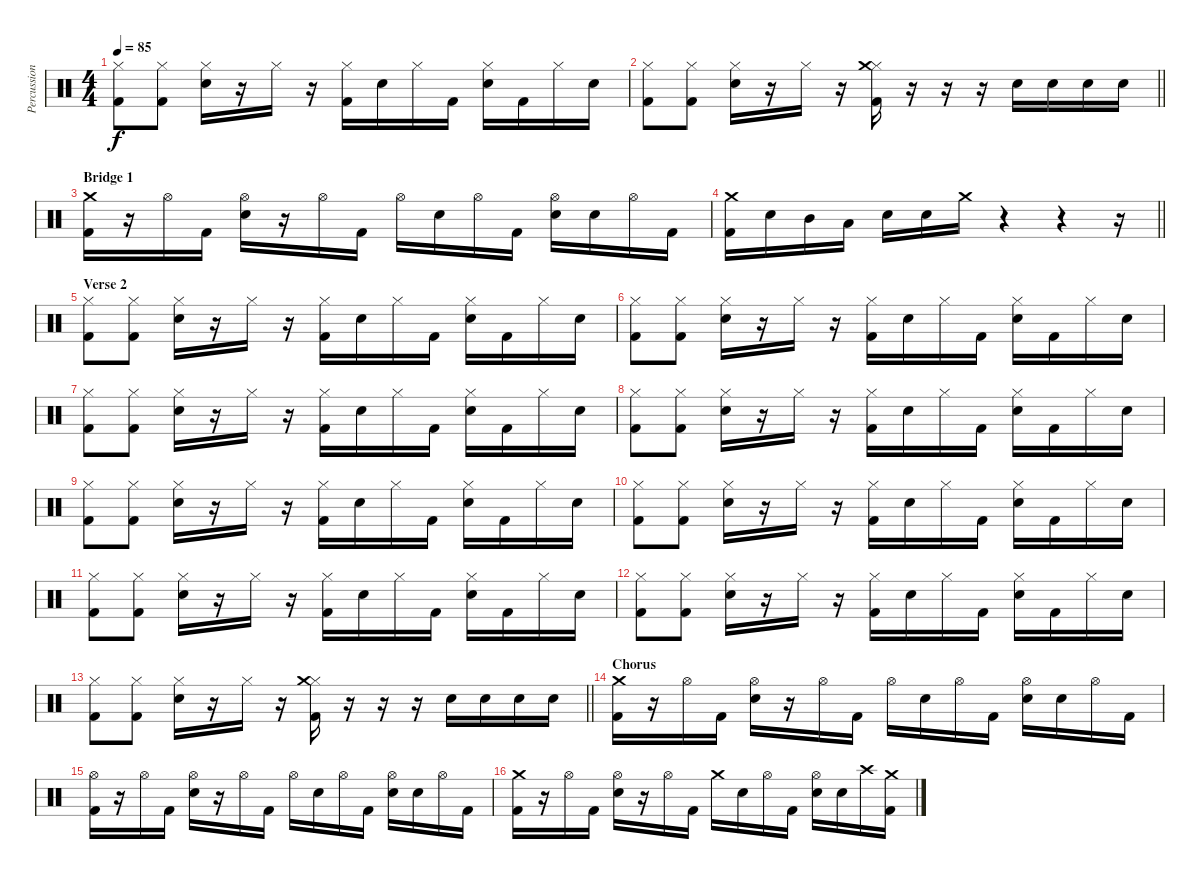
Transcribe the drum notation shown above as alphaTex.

\track ("Percussion" "Percussion") {instrument percussion}
\staff {score}
\articulation defaults
\ts (4 4)
\tempo 85
\clef neutral
\ks c
("Hi-Hat (closed)" "Kick (hit) 2").8{dy f} ("Hi-Hat (closed)" "Kick (hit) 2").8 ("Hi-Hat (closed)" "Electric Snare (hit)").16 r.16 "Hi-Hat (closed)".16 r.16 ("Hi-Hat (closed)" "Kick (hit) 2").16 "Electric Snare (hit)".16 "Hi-Hat (closed)".16 "Kick (hit) 2".16 ("Hi-Hat (closed)" "Electric Snare (hit)").16 "Kick (hit) 2".16 "Hi-Hat (closed)".16 "Electric Snare (hit)".16 |
\barLineRight lightlight
("Hi-Hat (closed)" "Kick (hit) 2").8 ("Hi-Hat (closed)" "Kick (hit) 2").8 ("Hi-Hat (closed)" "Electric Snare (hit)").16 r.16 "Hi-Hat (closed)".16 r.16 ("Hi-Hat (closed)" "Crash medium (hit)" "Kick (hit) 2").16 r.16 r.16 r.16 "Electric Snare (hit)".16 "Electric Snare (hit)".16 "Electric Snare (hit)".16 "Electric Snare (hit)".16 |
\section ("" "Bridge 1")
("Crash medium (hit)" "Kick (hit) 2").16 r.16 "Hi-Hat (open)".16 "Kick (hit) 2".16 ("Hi-Hat (open)" "Electric Snare (hit)").16 r.16 "Hi-Hat (open)".16 "Kick (hit) 2".16 "Hi-Hat (open)".16 "Electric Snare (hit)".16 "Hi-Hat (open)".16 "Kick (hit) 2".16 ("Hi-Hat (open)" "Electric Snare (hit)").16 "Electric Snare (hit)".16 "Hi-Hat (open)".16 "Kick (hit) 2".16 |
\barLineRight lightlight
("Crash medium (hit)" "Kick (hit) 2").16 "Electric Snare (hit)".16 "Mid Tom (hit)".16 "Low Tom (hit)".16 "Electric Snare (hit)".16 "Electric Snare (hit)".16 "Crash medium (hit)".16 r.4 r.4 r.16 |
\section ("" "Verse 2")
("Hi-Hat (closed)" "Kick (hit) 2").8 ("Hi-Hat (closed)" "Kick (hit) 2").8 ("Hi-Hat (closed)" "Electric Snare (hit)").16 r.16 "Hi-Hat (closed)".16 r.16 ("Hi-Hat (closed)" "Kick (hit) 2").16 "Electric Snare (hit)".16 "Hi-Hat (closed)".16 "Kick (hit) 2".16 ("Hi-Hat (closed)" "Electric Snare (hit)").16 "Kick (hit) 2".16 "Hi-Hat (closed)".16 "Electric Snare (hit)".16 |
("Hi-Hat (closed)" "Kick (hit) 2").8 ("Hi-Hat (closed)" "Kick (hit) 2").8 ("Hi-Hat (closed)" "Electric Snare (hit)").16 r.16 "Hi-Hat (closed)".16 r.16 ("Hi-Hat (closed)" "Kick (hit) 2").16 "Electric Snare (hit)".16 "Hi-Hat (closed)".16 "Kick (hit) 2".16 ("Hi-Hat (closed)" "Electric Snare (hit)").16 "Kick (hit) 2".16 "Hi-Hat (closed)".16 "Electric Snare (hit)".16 |
("Hi-Hat (closed)" "Kick (hit) 2").8 ("Hi-Hat (closed)" "Kick (hit) 2").8 ("Hi-Hat (closed)" "Electric Snare (hit)").16 r.16 "Hi-Hat (closed)".16 r.16 ("Hi-Hat (closed)" "Kick (hit) 2").16 "Electric Snare (hit)".16 "Hi-Hat (closed)".16 "Kick (hit) 2".16 ("Hi-Hat (closed)" "Electric Snare (hit)").16 "Kick (hit) 2".16 "Hi-Hat (closed)".16 "Electric Snare (hit)".16 |
("Hi-Hat (closed)" "Kick (hit) 2").8 ("Hi-Hat (closed)" "Kick (hit) 2").8 ("Hi-Hat (closed)" "Electric Snare (hit)").16 r.16 "Hi-Hat (closed)".16 r.16 ("Hi-Hat (closed)" "Kick (hit) 2").16 "Electric Snare (hit)".16 "Hi-Hat (closed)".16 "Kick (hit) 2".16 ("Hi-Hat (closed)" "Electric Snare (hit)").16 "Kick (hit) 2".16 "Hi-Hat (closed)".16 "Electric Snare (hit)".16 |
("Hi-Hat (closed)" "Kick (hit) 2").8 ("Hi-Hat (closed)" "Kick (hit) 2").8 ("Hi-Hat (closed)" "Electric Snare (hit)").16 r.16 "Hi-Hat (closed)".16 r.16 ("Hi-Hat (closed)" "Kick (hit) 2").16 "Electric Snare (hit)".16 "Hi-Hat (closed)".16 "Kick (hit) 2".16 ("Hi-Hat (closed)" "Electric Snare (hit)").16 "Kick (hit) 2".16 "Hi-Hat (closed)".16 "Electric Snare (hit)".16 |
("Hi-Hat (closed)" "Kick (hit) 2").8 ("Hi-Hat (closed)" "Kick (hit) 2").8 ("Hi-Hat (closed)" "Electric Snare (hit)").16 r.16 "Hi-Hat (closed)".16 r.16 ("Hi-Hat (closed)" "Kick (hit) 2").16 "Electric Snare (hit)".16 "Hi-Hat (closed)".16 "Kick (hit) 2".16 ("Hi-Hat (closed)" "Electric Snare (hit)").16 "Kick (hit) 2".16 "Hi-Hat (closed)".16 "Electric Snare (hit)".16 |
("Hi-Hat (closed)" "Kick (hit) 2").8 ("Hi-Hat (closed)" "Kick (hit) 2").8 ("Hi-Hat (closed)" "Electric Snare (hit)").16 r.16 "Hi-Hat (closed)".16 r.16 ("Hi-Hat (closed)" "Kick (hit) 2").16 "Electric Snare (hit)".16 "Hi-Hat (closed)".16 "Kick (hit) 2".16 ("Hi-Hat (closed)" "Electric Snare (hit)").16 "Kick (hit) 2".16 "Hi-Hat (closed)".16 "Electric Snare (hit)".16 |
("Hi-Hat (closed)" "Kick (hit) 2").8 ("Hi-Hat (closed)" "Kick (hit) 2").8 ("Hi-Hat (closed)" "Electric Snare (hit)").16 r.16 "Hi-Hat (closed)".16 r.16 ("Hi-Hat (closed)" "Kick (hit) 2").16 "Electric Snare (hit)".16 "Hi-Hat (closed)".16 "Kick (hit) 2".16 ("Hi-Hat (closed)" "Electric Snare (hit)").16 "Kick (hit) 2".16 "Hi-Hat (closed)".16 "Electric Snare (hit)".16 |
\barLineRight lightlight
("Hi-Hat (closed)" "Kick (hit) 2").8 ("Hi-Hat (closed)" "Kick (hit) 2").8 ("Hi-Hat (closed)" "Electric Snare (hit)").16 r.16 "Hi-Hat (closed)".16 r.16 ("Hi-Hat (closed)" "Crash medium (hit)" "Kick (hit) 2").16 r.16 r.16 r.16 "Electric Snare (hit)".16 "Electric Snare (hit)".16 "Electric Snare (hit)".16 "Electric Snare (hit)".16 |
\section ("" "Chorus")
("Crash medium (hit)" "Kick (hit) 2").16 r.16 "Hi-Hat (open)".16 "Kick (hit) 2".16 ("Hi-Hat (open)" "Electric Snare (hit)").16 r.16 "Hi-Hat (open)".16 "Kick (hit) 2".16 "Hi-Hat (open)".16 "Electric Snare (hit)".16 "Hi-Hat (open)".16 "Kick (hit) 2".16 ("Hi-Hat (open)" "Electric Snare (hit)").16 "Electric Snare (hit)".16 "Hi-Hat (open)".16 "Kick (hit) 2".16 |
("Hi-Hat (open)" "Kick (hit) 2").16 r.16 "Hi-Hat (open)".16 "Kick (hit) 2".16 ("Hi-Hat (open)" "Electric Snare (hit)").16 r.16 "Hi-Hat (open)".16 "Kick (hit) 2".16 "Hi-Hat (open)".16 "Electric Snare (hit)".16 "Hi-Hat (open)".16 "Kick (hit) 2".16 ("Hi-Hat (open)" "Electric Snare (hit)").16 "Electric Snare (hit)".16 "Hi-Hat (open)".16 "Kick (hit) 2".16 |
("Crash medium (hit)" "Kick (hit) 2").16 r.16 "Hi-Hat (open)".16 "Kick (hit) 2".16 ("Hi-Hat (open)" "Electric Snare (hit)").16 r.16 "Hi-Hat (open)".16 "Kick (hit) 2".16 "Crash medium (hit)".16 "Electric Snare (hit)".16 "Hi-Hat (open)".16 "Kick (hit) 2".16 ("Hi-Hat (open)" "Electric Snare (hit)").16 "Electric Snare (hit)".16 "Crash high (hit)".16 ("Crash medium (hit)" "Kick (hit) 2").16
